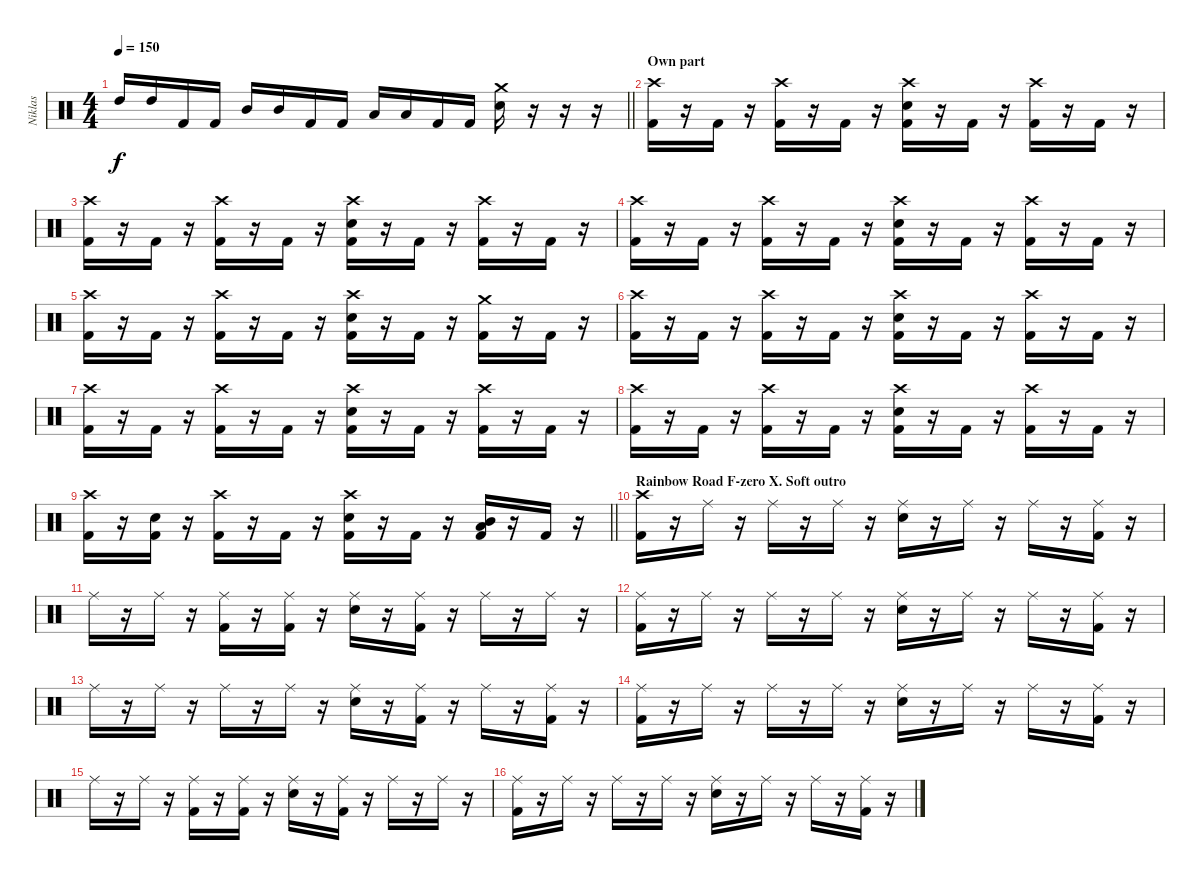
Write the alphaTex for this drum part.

\track ("Niklas" "Niklas") {instrument percussion}
\staff {score}
\articulation defaults
\ts (4 4)
\tempo 150
\clef neutral
\barLineRight lightlight
\ks c "High Tom (hit)".16{dy f} "High Tom (hit)".16 "Kick (hit) 2".16 "Kick (hit) 2".16 "Mid Tom (hit)".16 "Mid Tom (hit)".16 "Kick (hit) 2".16 "Kick (hit) 2".16 "Low Tom (hit)".16 "Low Tom (hit)".16 "Kick (hit) 2".16 "Kick (hit) 2".16
("Crash medium (hit)" "Electric Snare (hit)").16 r.16 r.16 r.16 |
\section ("" "Own part")
("Crash high (hit)" "Kick (hit) 2").16 r.16 "Kick (hit) 2".16 r.16 ("Crash high (hit)" "Kick (hit) 2").16 r.16 "Kick (hit) 2".16 r.16 ("Crash high (hit)" "Electric Snare (hit)" "Kick (hit) 2").16 r.16 "Kick (hit) 2".16 r.16 ("Crash high (hit)" "Kick (hit) 2").16 r.16 "Kick (hit) 2".16 r.16 |
("Crash high (hit)" "Kick (hit) 2").16 r.16 "Kick (hit) 2".16 r.16 ("Crash high (hit)" "Kick (hit) 2").16 r.16 "Kick (hit) 2".16 r.16 ("Crash high (hit)" "Electric Snare (hit)" "Kick (hit) 2").16 r.16 "Kick (hit) 2".16 r.16 ("Crash high (hit)" "Kick (hit) 2").16 r.16 "Kick (hit) 2".16 r.16 |
("Crash high (hit)" "Kick (hit) 2").16 r.16 "Kick (hit) 2".16 r.16 ("Crash high (hit)" "Kick (hit) 2").16 r.16 "Kick (hit) 2".16 r.16 ("Crash high (hit)" "Electric Snare (hit)" "Kick (hit) 2").16 r.16 "Kick (hit) 2".16 r.16 ("Crash high (hit)" "Kick (hit) 2").16 r.16 "Kick (hit) 2".16 r.16 |
("Crash high (hit)" "Kick (hit) 2").16 r.16 "Kick (hit) 2".16 r.16 ("Crash high (hit)" "Kick (hit) 2").16 r.16 "Kick (hit) 2".16 r.16 ("Crash high (hit)" "Electric Snare (hit)" "Kick (hit) 2").16 r.16 "Kick (hit) 2".16 r.16 ("Crash medium (hit)" "Kick (hit) 2").16 r.16 "Kick (hit) 2".16 r.16 |
("Crash high (hit)" "Kick (hit) 2").16 r.16 "Kick (hit) 2".16 r.16 ("Crash high (hit)" "Kick (hit) 2").16 r.16 "Kick (hit) 2".16 r.16 ("Crash high (hit)" "Electric Snare (hit)" "Kick (hit) 2").16 r.16 "Kick (hit) 2".16 r.16 ("Crash high (hit)" "Kick (hit) 2").16 r.16 "Kick (hit) 2".16 r.16 |
("Crash high (hit)" "Kick (hit) 2").16 r.16 "Kick (hit) 2".16 r.16 ("Crash high (hit)" "Kick (hit) 2").16 r.16 "Kick (hit) 2".16 r.16 ("Crash high (hit)" "Electric Snare (hit)" "Kick (hit) 2").16 r.16 "Kick (hit) 2".16 r.16 ("Crash high (hit)" "Kick (hit) 2").16 r.16 "Kick (hit) 2".16 r.16 |
("Crash high (hit)" "Kick (hit) 2").16 r.16 "Kick (hit) 2".16 r.16 ("Crash high (hit)" "Kick (hit) 2").16 r.16 "Kick (hit) 2".16 r.16 ("Crash high (hit)" "Electric Snare (hit)" "Kick (hit) 2").16 r.16 "Kick (hit) 2".16 r.16 ("Crash high (hit)" "Kick (hit) 2").16 r.16 "Kick (hit) 2".16 r.16 |
\barLineRight lightlight
("Crash high (hit)" "Kick (hit) 2").16 r.16 ("Electric Snare (hit)" "Kick (hit) 2").16 r.16 ("Crash high (hit)" "Kick (hit) 2").16 r.16 "Kick (hit) 2".16 r.16 ("Crash high (hit)" "Electric Snare (hit)" "Kick (hit) 2").16 r.16 "Kick (hit) 2".16 r.16 ("Mid Tom (hit)" "Low Tom (hit)" "Kick (hit) 2").16 r.16 "Kick (hit) 2".16 r.16 |
\section ("" "Rainbow Road F-zero X. Soft outro")
("Crash high (hit)" "Kick (hit) 2").16 r.16 "Ride (middle)".16 r.16 "Ride (middle)".16 r.16 "Ride (middle)".16 r.16 ("Ride (middle)" "Electric Snare (hit)").16 r.16 "Ride (middle)".16 r.16 "Ride (middle)".16 r.16 ("Ride (middle)" "Kick (hit) 2").16 r.16 |
"Ride (middle)".16 r.16 "Ride (middle)".16 r.16 ("Ride (middle)" "Kick (hit) 2").16 r.16 ("Ride (middle)" "Kick (hit) 2").16 r.16 ("Ride (middle)" "Electric Snare (hit)").16 r.16 ("Ride (middle)" "Kick (hit) 2").16 r.16 "Ride (middle)".16 r.16 "Ride (middle)".16 r.16 |
("Ride (middle)" "Kick (hit) 2").16 r.16 "Ride (middle)".16 r.16 "Ride (middle)".16 r.16 "Ride (middle)".16 r.16 ("Ride (middle)" "Electric Snare (hit)").16 r.16 "Ride (middle)".16 r.16 "Ride (middle)".16 r.16 ("Ride (middle)" "Kick (hit) 2").16 r.16 |
"Ride (middle)".16 r.16 "Ride (middle)".16 r.16 "Ride (middle)".16 r.16 "Ride (middle)".16 r.16 ("Ride (middle)" "Electric Snare (hit)").16 r.16 ("Ride (middle)" "Kick (hit) 2").16 r.16 "Ride (middle)".16 r.16 ("Ride (middle)" "Kick (hit) 2").16 r.16 |
("Ride (middle)" "Kick (hit) 2").16 r.16 "Ride (middle)".16 r.16 "Ride (middle)".16 r.16 "Ride (middle)".16 r.16 ("Ride (middle)" "Electric Snare (hit)").16 r.16 "Ride (middle)".16 r.16 "Ride (middle)".16 r.16 ("Ride (middle)" "Kick (hit) 2").16 r.16 |
"Ride (middle)".16 r.16 "Ride (middle)".16 r.16 ("Ride (middle)" "Kick (hit) 2").16 r.16 ("Ride (middle)" "Kick (hit) 2").16 r.16 ("Ride (middle)" "Electric Snare (hit)").16 r.16 ("Ride (middle)" "Kick (hit) 2").16 r.16 "Ride (middle)".16 r.16 "Ride (middle)".16 r.16 |
("Ride (middle)" "Kick (hit) 2").16 r.16 "Ride (middle)".16 r.16 "Ride (middle)".16 r.16 "Ride (middle)".16 r.16 ("Ride (middle)" "Electric Snare (hit)").16 r.16 "Ride (middle)".16 r.16 "Ride (middle)".16 r.16 ("Ride (middle)" "Kick (hit) 2").16 r.16
